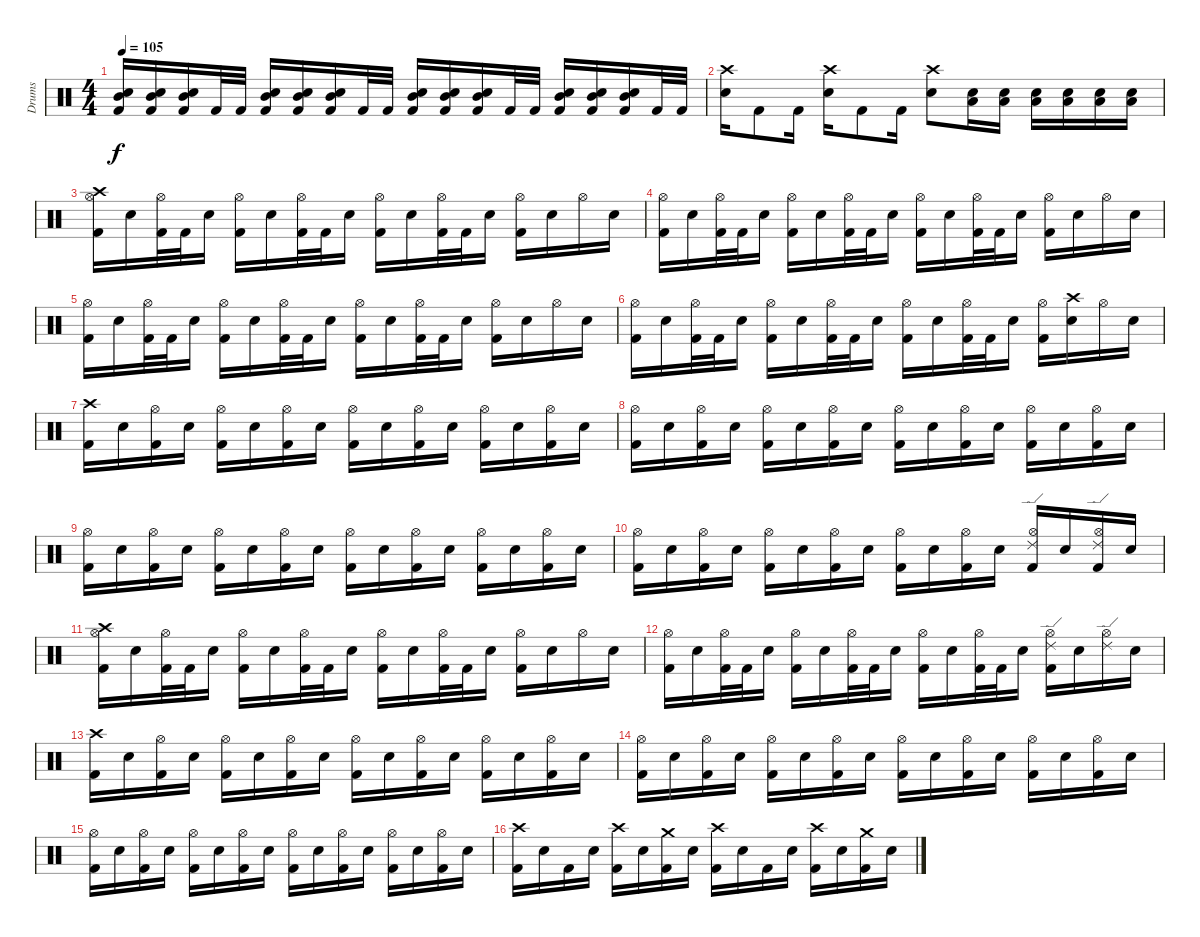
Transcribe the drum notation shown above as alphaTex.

\track ("Drums" "Drums") {instrument percussion}
\staff {score}
\articulation defaults
\ts (4 4)
\tempo 105
\clef neutral
\ks c
("Mid Tom (hit)" "Snare (hit) 2" "Kick (hit) 2").16{dy f} ("Mid Tom (hit)" "Snare (hit) 2" "Kick (hit) 2").16 ("Mid Tom (hit)" "Snare (hit) 2" "Kick (hit) 2").16 "Kick (hit) 2".32 "Kick (hit) 2".32 ("Mid Tom (hit)" "Snare (hit) 2" "Kick (hit) 2").16 ("Mid Tom (hit)" "Snare (hit) 2" "Kick (hit) 2").16 ("Mid Tom (hit)" "Snare (hit) 2" "Kick (hit) 2").16 "Kick (hit) 2".32 "Kick (hit) 2".32 ("Mid Tom (hit)" "Snare (hit) 2" "Kick (hit) 2").16 ("Mid Tom (hit)" "Snare (hit) 2" "Kick (hit) 2").16 ("Mid Tom (hit)" "Snare (hit) 2" "Kick (hit) 2").16 "Kick (hit) 2".32 "Kick (hit) 2".32 ("Mid Tom (hit)" "Snare (hit) 2" "Kick (hit) 2").16 ("Mid Tom (hit)" "Snare (hit) 2" "Kick (hit) 2").16 ("Mid Tom (hit)" "Snare (hit) 2" "Kick (hit) 2").16 "Kick (hit) 2".32 "Kick (hit) 2".32 |
("Crash high (hit)" "Snare (hit) 2").16 "Kick (hit) 2".8 "Kick (hit) 2".16 ("Crash high (hit)" "Snare (hit) 2").16 "Kick (hit) 2".8 "Kick (hit) 2".16 ("Crash high (hit)" "Snare (hit) 2").8 ("Low Tom (hit)" "Snare (hit) 2").16 ("Low Tom (hit)" "Snare (hit) 2").16 ("Low Tom (hit)" "Snare (hit) 2").16 ("Low Tom (hit)" "Snare (hit) 2").16 ("Low Tom (hit)" "Snare (hit) 2").16 ("Low Tom (hit)" "Snare (hit) 2").16 |
("Crash high (hit)" "Hi-Hat (open)" "Kick (hit) 2").16 "Snare (hit) 2".16 ("Hi-Hat (open)" "Kick (hit) 2").32 "Kick (hit) 2".32 "Snare (hit) 2".16 ("Hi-Hat (open)" "Kick (hit) 2").16 "Snare (hit) 2".16 ("Hi-Hat (open)" "Kick (hit) 2").32 "Kick (hit) 2".32 "Snare (hit) 2".16 ("Hi-Hat (open)" "Kick (hit) 2").16 "Snare (hit) 2".16 ("Hi-Hat (open)" "Kick (hit) 2").32 "Kick (hit) 2".32 "Snare (hit) 2".16 ("Hi-Hat (open)" "Kick (hit) 2").16 "Snare (hit) 2".16 "Hi-Hat (open)".16 "Snare (hit) 2".16 |
("Hi-Hat (open)" "Kick (hit) 2").16 "Snare (hit) 2".16 ("Hi-Hat (open)" "Kick (hit) 2").32 "Kick (hit) 2".32 "Snare (hit) 2".16 ("Hi-Hat (open)" "Kick (hit) 2").16 "Snare (hit) 2".16 ("Hi-Hat (open)" "Kick (hit) 2").32 "Kick (hit) 2".32 "Snare (hit) 2".16 ("Hi-Hat (open)" "Kick (hit) 2").16 "Snare (hit) 2".16 ("Hi-Hat (open)" "Kick (hit) 2").32 "Kick (hit) 2".32 "Snare (hit) 2".16 ("Hi-Hat (open)" "Kick (hit) 2").16 "Snare (hit) 2".16 "Hi-Hat (open)".16 "Snare (hit) 2".16 |
("Hi-Hat (open)" "Kick (hit) 2").16 "Snare (hit) 2".16 ("Hi-Hat (open)" "Kick (hit) 2").32 "Kick (hit) 2".32 "Snare (hit) 2".16 ("Hi-Hat (open)" "Kick (hit) 2").16 "Snare (hit) 2".16 ("Hi-Hat (open)" "Kick (hit) 2").32 "Kick (hit) 2".32 "Snare (hit) 2".16 ("Hi-Hat (open)" "Kick (hit) 2").16 "Snare (hit) 2".16 ("Hi-Hat (open)" "Kick (hit) 2").32 "Kick (hit) 2".32 "Snare (hit) 2".16 ("Hi-Hat (open)" "Kick (hit) 2").16 "Snare (hit) 2".16 "Hi-Hat (open)".16 "Snare (hit) 2".16 |
("Hi-Hat (open)" "Kick (hit) 2").16 "Snare (hit) 2".16 ("Hi-Hat (open)" "Kick (hit) 2").32 "Kick (hit) 2".32 "Snare (hit) 2".16 ("Hi-Hat (open)" "Kick (hit) 2").16 "Snare (hit) 2".16 ("Hi-Hat (open)" "Kick (hit) 2").32 "Kick (hit) 2".32 "Snare (hit) 2".16 ("Hi-Hat (open)" "Kick (hit) 2").16 "Snare (hit) 2".16 ("Hi-Hat (open)" "Kick (hit) 2").32 "Kick (hit) 2".32 "Snare (hit) 2".16 ("Hi-Hat (open)" "Kick (hit) 2").16 ("Crash high (hit)" "Snare (hit) 2").16 "Hi-Hat (open)".16 "Snare (hit) 2".16 |
("Crash high (hit)" "Kick (hit) 2").16 "Snare (hit) 2".16 ("Hi-Hat (open)" "Kick (hit) 2").16 "Snare (hit) 2".16 ("Hi-Hat (open)" "Kick (hit) 2").16 "Snare (hit) 2".16 ("Hi-Hat (open)" "Kick (hit) 2").16 "Snare (hit) 2".16 ("Hi-Hat (open)" "Kick (hit) 2").16 "Snare (hit) 2".16 ("Hi-Hat (open)" "Kick (hit) 2").16 "Snare (hit) 2".16 ("Hi-Hat (open)" "Kick (hit) 2").16 "Snare (hit) 2".16 ("Hi-Hat (open)" "Kick (hit) 2").16 "Snare (hit) 2".16 |
("Hi-Hat (open)" "Kick (hit) 2").16 "Snare (hit) 2".16 ("Hi-Hat (open)" "Kick (hit) 2").16 "Snare (hit) 2".16 ("Hi-Hat (open)" "Kick (hit) 2").16 "Snare (hit) 2".16 ("Hi-Hat (open)" "Kick (hit) 2").16 "Snare (hit) 2".16 ("Hi-Hat (open)" "Kick (hit) 2").16 "Snare (hit) 2".16 ("Hi-Hat (open)" "Kick (hit) 2").16 "Snare (hit) 2".16 ("Hi-Hat (open)" "Kick (hit) 2").16 "Snare (hit) 2".16 ("Hi-Hat (open)" "Kick (hit) 2").16 "Snare (hit) 2".16 |
("Hi-Hat (open)" "Kick (hit) 2").16 "Snare (hit) 2".16 ("Hi-Hat (open)" "Kick (hit) 2").16 "Snare (hit) 2".16 ("Hi-Hat (open)" "Kick (hit) 2").16 "Snare (hit) 2".16 ("Hi-Hat (open)" "Kick (hit) 2").16 "Snare (hit) 2".16 ("Hi-Hat (open)" "Kick (hit) 2").16 "Snare (hit) 2".16 ("Hi-Hat (open)" "Kick (hit) 2").16 "Snare (hit) 2".16 ("Hi-Hat (open)" "Kick (hit) 2").16 "Snare (hit) 2".16 ("Hi-Hat (open)" "Kick (hit) 2").16 "Snare (hit) 2".16 |
("Hi-Hat (open)" "Kick (hit) 2").16 "Snare (hit) 2".16 ("Hi-Hat (open)" "Kick (hit) 2").16 "Snare (hit) 2".16 ("Hi-Hat (open)" "Kick (hit) 2").16 "Snare (hit) 2".16 ("Hi-Hat (open)" "Kick (hit) 2").16 "Snare (hit) 2".16 ("Hi-Hat (open)" "Kick (hit) 2").16 "Snare (hit) 2".16 ("Hi-Hat (open)" "Kick (hit) 2").16 "Snare (hit) 2".16 ("Ride (edge) 2" "Hi-Hat (open)" "Kick (hit) 2").16 "Snare (hit) 2".16 ("Ride (edge) 2" "Hi-Hat (open)" "Kick (hit) 2").16 "Snare (hit) 2".16 |
("Crash high (hit)" "Hi-Hat (open)" "Kick (hit) 2").16 "Snare (hit) 2".16 ("Hi-Hat (open)" "Kick (hit) 2").32 "Kick (hit) 2".32 "Snare (hit) 2".16 ("Hi-Hat (open)" "Kick (hit) 2").16 "Snare (hit) 2".16 ("Hi-Hat (open)" "Kick (hit) 2").32 "Kick (hit) 2".32 "Snare (hit) 2".16 ("Hi-Hat (open)" "Kick (hit) 2").16 "Snare (hit) 2".16 ("Hi-Hat (open)" "Kick (hit) 2").32 "Kick (hit) 2".32 "Snare (hit) 2".16 ("Hi-Hat (open)" "Kick (hit) 2").16 "Snare (hit) 2".16 "Hi-Hat (open)".16 "Snare (hit) 2".16 |
("Hi-Hat (open)" "Kick (hit) 2").16 "Snare (hit) 2".16 ("Hi-Hat (open)" "Kick (hit) 2").32 "Kick (hit) 2".32 "Snare (hit) 2".16 ("Hi-Hat (open)" "Kick (hit) 2").16 "Snare (hit) 2".16 ("Hi-Hat (open)" "Kick (hit) 2").32 "Kick (hit) 2".32 "Snare (hit) 2".16 ("Hi-Hat (open)" "Kick (hit) 2").16 "Snare (hit) 2".16 ("Hi-Hat (open)" "Kick (hit) 2").32 "Kick (hit) 2".32 "Snare (hit) 2".16 ("Ride (edge) 2" "Hi-Hat (open)" "Kick (hit) 2").16 "Snare (hit) 2".16 ("Ride (edge) 2" "Hi-Hat (open)").16 "Snare (hit) 2".16 |
("Crash high (hit)" "Kick (hit) 2").16 "Snare (hit) 2".16 ("Hi-Hat (open)" "Kick (hit) 2").16 "Snare (hit) 2".16 ("Hi-Hat (open)" "Kick (hit) 2").16 "Snare (hit) 2".16 ("Hi-Hat (open)" "Kick (hit) 2").16 "Snare (hit) 2".16 ("Hi-Hat (open)" "Kick (hit) 2").16 "Snare (hit) 2".16 ("Hi-Hat (open)" "Kick (hit) 2").16 "Snare (hit) 2".16 ("Hi-Hat (open)" "Kick (hit) 2").16 "Snare (hit) 2".16 ("Hi-Hat (open)" "Kick (hit) 2").16 "Snare (hit) 2".16 |
("Hi-Hat (open)" "Kick (hit) 2").16 "Snare (hit) 2".16 ("Hi-Hat (open)" "Kick (hit) 2").16 "Snare (hit) 2".16 ("Hi-Hat (open)" "Kick (hit) 2").16 "Snare (hit) 2".16 ("Hi-Hat (open)" "Kick (hit) 2").16 "Snare (hit) 2".16 ("Hi-Hat (open)" "Kick (hit) 2").16 "Snare (hit) 2".16 ("Hi-Hat (open)" "Kick (hit) 2").16 "Snare (hit) 2".16 ("Hi-Hat (open)" "Kick (hit) 2").16 "Snare (hit) 2".16 ("Hi-Hat (open)" "Kick (hit) 2").16 "Snare (hit) 2".16 |
("Hi-Hat (open)" "Kick (hit) 2").16 "Snare (hit) 2".16 ("Hi-Hat (open)" "Kick (hit) 2").16 "Snare (hit) 2".16 ("Hi-Hat (open)" "Kick (hit) 2").16 "Snare (hit) 2".16 ("Hi-Hat (open)" "Kick (hit) 2").16 "Snare (hit) 2".16 ("Hi-Hat (open)" "Kick (hit) 2").16 "Snare (hit) 2".16 ("Hi-Hat (open)" "Kick (hit) 2").16 "Snare (hit) 2".16 ("Hi-Hat (open)" "Kick (hit) 2").16 "Snare (hit) 2".16 ("Hi-Hat (open)" "Kick (hit) 2").16 "Snare (hit) 2".16 |
("Crash high (hit)" "Kick (hit) 2").16 "Snare (hit) 2".16 "Kick (hit) 2".16 "Snare (hit) 2".16 ("Crash high (hit)" "Kick (hit) 2").16 "Snare (hit) 2".16 ("Crash medium (hit)" "Kick (hit) 2").16 "Snare (hit) 2".16 ("Crash high (hit)" "Kick (hit) 2").16 "Snare (hit) 2".16 "Kick (hit) 2".16 "Snare (hit) 2".16 ("Crash high (hit)" "Kick (hit) 2").16 "Snare (hit) 2".16 ("Crash medium (hit)" "Kick (hit) 2").16 "Snare (hit) 2".16
